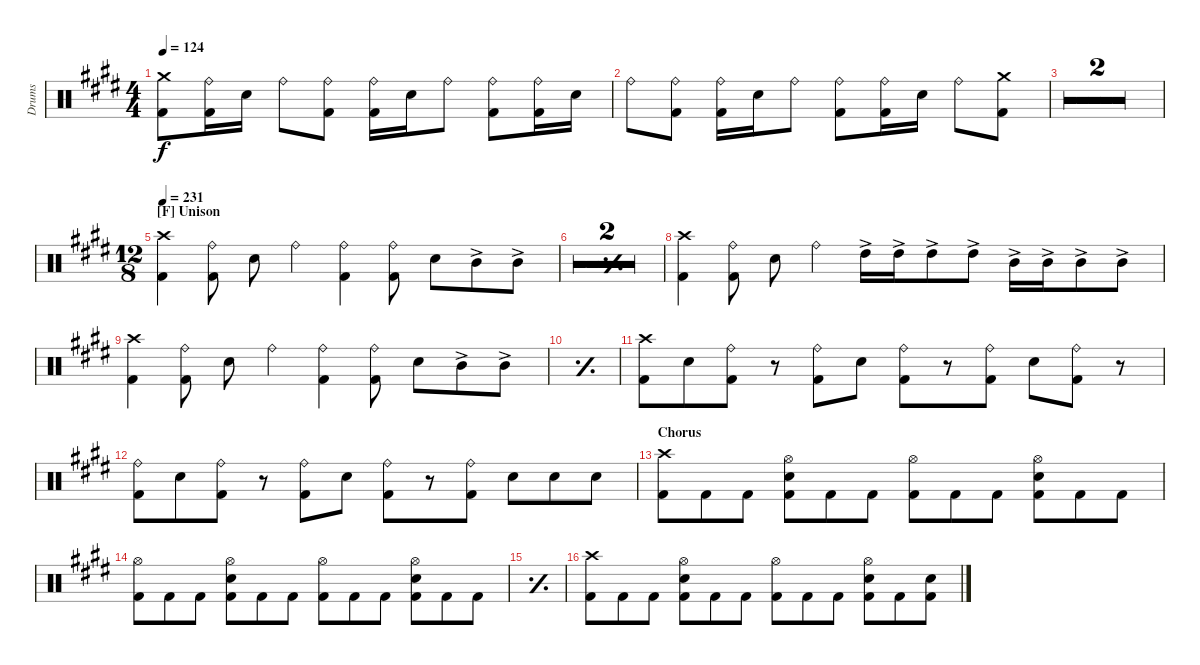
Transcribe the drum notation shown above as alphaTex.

\defaultSystemsLayout 4
\bracketExtendMode groupsimilarinstruments
\otherSystemsTrackNameOrientation horizontal
\track ("Drumkit" "Drums") {multiBarRest instrument percussion}
\staff {score}
\articulation defaults
\ts (4 4)
\tempo 124
\clef neutral
\ks c#minor
("Crash medium (hit)"{acc forcenatural} "Kick (hit) 2"{acc forcenatural}).8{dy f} ("Ride (bell)"{acc forcenatural} "Kick (hit) 2"{acc forcenatural}).16 "Snare (hit) 2"{acc forcenatural}.16 "Ride (bell)"{acc forcenatural}.8 ("Ride (bell)"{acc forcenatural} "Kick (hit) 2"{acc forcenatural}).8 ("Ride (bell)"{acc forcenatural} "Kick (hit) 2"{acc forcenatural}).16 "Snare (hit) 2"{acc forcenatural}.16 "Ride (bell)"{acc forcenatural}.8 ("Ride (bell)"{acc forcenatural} "Kick (hit) 2"{acc forcenatural}).8 ("Ride (bell)"{acc forcenatural} "Kick (hit) 2"{acc forcenatural}).16 "Snare (hit) 2"{acc forcenatural}.16 |
"Ride (bell)"{acc forcenatural}.8 ("Ride (bell)"{acc forcenatural} "Kick (hit) 2"{acc forcenatural}).8 ("Ride (bell)"{acc forcenatural} "Kick (hit) 2"{acc forcenatural}).16 "Snare (hit) 2"{acc forcenatural}.16 "Ride (bell)"{acc forcenatural}.8 ("Ride (bell)"{acc forcenatural} "Kick (hit) 2"{acc forcenatural}).8 ("Ride (bell)"{acc forcenatural} "Kick (hit) 2"{acc forcenatural}).16 "Snare (hit) 2"{acc forcenatural}.16 "Ride (bell)"{acc forcenatural}.8 ("Crash medium (hit)"{acc forcenatural} "Kick (hit) 2"{acc forcenatural}).8 |
\simile firstofdouble
|
\simile secondofdouble
|
\ts (12 8)
\section ("F" "Unison")
\tempo 231
\simile none
("Crash high (hit)"{acc forcenatural} "Kick (hit) 2"{acc forcenatural}).4 ("Ride (bell)"{acc forcenatural} "Kick (hit) 2"{acc forcenatural}).8 "Snare (hit) 2"{acc forcenatural}.8 "Ride (bell)"{acc forcenatural}.4 ("Ride (bell)"{acc forcenatural} "Kick (hit) 2"{acc forcenatural}).4 ("Ride (bell)"{acc forcenatural} "Kick (hit) 2"{acc forcenatural}).8 "Snare (hit) 2"{acc forcenatural}.8 "Mid Tom (hit)"{ac acc forcenatural}.8 "Mid Tom (hit)"{ac acc forcenatural}.8 |
\simile simple
|
|
\simile none
("Crash high (hit)"{acc forcenatural} "Kick (hit) 2"{acc forcenatural}).4 ("Ride (bell)"{acc forcenatural} "Kick (hit) 2"{acc forcenatural}).8 "Snare (hit) 2"{acc forcenatural}.8 "Ride (bell)"{acc forcenatural}.4 "High Tom (hit)"{ac acc forcenatural}.16 "High Tom (hit)"{ac acc forcenatural}.16 "High Tom (hit)"{ac acc forcenatural}.8 "High Tom (hit)"{ac acc forcenatural}.8 "Mid Tom (hit)"{ac acc forcenatural}.16 "Mid Tom (hit)"{ac acc forcenatural}.16 "Mid Tom (hit)"{ac acc forcenatural}.8 "Mid Tom (hit)"{ac acc forcenatural}.8 |
("Crash high (hit)"{acc forcenatural} "Kick (hit) 2"{acc forcenatural}).4 ("Ride (bell)"{acc forcenatural} "Kick (hit) 2"{acc forcenatural}).8 "Snare (hit) 2"{acc forcenatural}.8 "Ride (bell)"{acc forcenatural}.4 ("Ride (bell)"{acc forcenatural} "Kick (hit) 2"{acc forcenatural}).4 ("Ride (bell)"{acc forcenatural} "Kick (hit) 2"{acc forcenatural}).8 "Snare (hit) 2"{acc forcenatural}.8 "Mid Tom (hit)"{ac acc forcenatural}.8 "Mid Tom (hit)"{ac acc forcenatural}.8 |
\simile simple
|
\simile none
("Crash high (hit)"{acc forcenatural} "Kick (hit) 2"{acc forcenatural}).8 "Snare (hit) 2"{acc forcenatural}.8 ("Ride (bell)"{acc forcenatural} "Kick (hit) 2"{acc forcenatural}).8 r.8 ("Ride (bell)"{acc forcenatural} "Kick (hit) 2"{acc forcenatural}).8 "Snare (hit) 2"{acc forcenatural}.8 ("Ride (bell)"{acc forcenatural} "Kick (hit) 2"{acc forcenatural}).8 r.8 ("Ride (bell)"{acc forcenatural} "Kick (hit) 2"{acc forcenatural}).8 "Snare (hit) 2"{acc forcenatural}.8 ("Ride (bell)"{acc forcenatural} "Kick (hit) 2"{acc forcenatural}).8 r.8 |
("Ride (bell)"{acc forcenatural} "Kick (hit) 2"{acc forcenatural}).8 "Snare (hit) 2"{acc forcenatural}.8 ("Ride (bell)"{acc forcenatural} "Kick (hit) 2"{acc forcenatural}).8 r.8 ("Ride (bell)"{acc forcenatural} "Kick (hit) 2"{acc forcenatural}).8 "Snare (hit) 2"{acc forcenatural}.8 ("Ride (bell)"{acc forcenatural} "Kick (hit) 2"{acc forcenatural}).8 r.8 ("Ride (bell)"{acc forcenatural} "Kick (hit) 2"{acc forcenatural}).8 "Snare (hit) 2"{acc forcenatural}.8 "Snare (hit) 2"{acc forcenatural}.8 "Snare (hit) 2"{acc forcenatural}.8 |
\section ("" "Chorus")
("Crash high (hit)"{acc forcenatural} "Kick (hit) 2"{acc forcenatural}).8 "Kick (hit) 2"{acc forcenatural}.8 "Kick (hit) 2"{acc forcenatural}.8 ("Hi-Hat (open)"{acc forcenatural} "Snare (hit) 2"{acc forcenatural} "Kick (hit) 2"{acc forcenatural}).8 "Kick (hit) 2"{acc forcenatural}.8 "Kick (hit) 2"{acc forcenatural}.8 ("Hi-Hat (open)"{acc forcenatural} "Kick (hit) 2"{acc forcenatural}).8 "Kick (hit) 2"{acc forcenatural}.8 "Kick (hit) 2"{acc forcenatural}.8 ("Hi-Hat (open)"{acc forcenatural} "Snare (hit) 2"{acc forcenatural} "Kick (hit) 2"{acc forcenatural}).8 "Kick (hit) 2"{acc forcenatural}.8 "Kick (hit) 2"{acc forcenatural}.8 |
("Hi-Hat (open)"{acc forcenatural} "Kick (hit) 2"{acc forcenatural}).8 "Kick (hit) 2"{acc forcenatural}.8 "Kick (hit) 2"{acc forcenatural}.8 ("Snare (hit) 2"{acc forcenatural} "Kick (hit) 2"{acc forcenatural} "Hi-Hat (open)"{acc forcenatural}).8 "Kick (hit) 2"{acc forcenatural}.8 "Kick (hit) 2"{acc forcenatural}.8 ("Hi-Hat (open)"{acc forcenatural} "Kick (hit) 2"{acc forcenatural}).8 "Kick (hit) 2"{acc forcenatural}.8 "Kick (hit) 2"{acc forcenatural}.8 ("Snare (hit) 2"{acc forcenatural} "Kick (hit) 2"{acc forcenatural} "Hi-Hat (open)"{acc forcenatural}).8 "Kick (hit) 2"{acc forcenatural}.8 "Kick (hit) 2"{acc forcenatural}.8 |
\simile simple
|
\simile none
("Crash high (hit)"{acc forcenatural} "Kick (hit) 2"{acc forcenatural}).8 "Kick (hit) 2"{acc forcenatural}.8 "Kick (hit) 2"{acc forcenatural}.8 ("Hi-Hat (open)"{acc forcenatural} "Snare (hit) 2"{acc forcenatural} "Kick (hit) 2"{acc forcenatural}).8 "Kick (hit) 2"{acc forcenatural}.8 "Kick (hit) 2"{acc forcenatural}.8 ("Hi-Hat (open)"{acc forcenatural} "Kick (hit) 2"{acc forcenatural}).8 "Kick (hit) 2"{acc forcenatural}.8 "Kick (hit) 2"{acc forcenatural}.8 ("Hi-Hat (open)"{acc forcenatural} "Snare (hit) 2"{acc forcenatural} "Kick (hit) 2"{acc forcenatural}).8 "Kick (hit) 2"{acc forcenatural}.8 ("Kick (hit) 2"{acc forcenatural} "Snare (hit) 2"{acc forcenatural}).8
